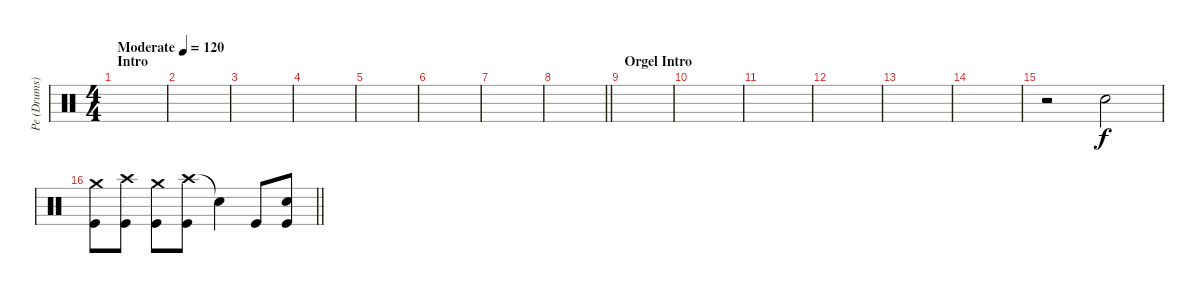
\track ("Pe (Drums)" "Pe (Drums)") {instrument percussion}
\staff {score}
\articulation defaults
\ts (4 4)
\section ("" "Intro")
\tempo (120 "Moderate")
\clef neutral
\ks c
|
|
|
|
|
|
|
\barLineRight lightlight
|
\section ("" "Orgel Intro")
|
|
|
|
|
|
r.2 "Electric Snare (hit)".2 |
\barLineRight lightlight
("Crash medium (hit)" "Kick (hit)").8{dy f} ("Crash high (hit)" "Kick (hit)").8 ("Crash medium (hit)" "Kick (hit)").8 ("Crash high (hit)" "Kick (hit)").8 "Snare (hit)"{t}.4 "Kick (hit)".8 ("Electric Snare (hit)" "Kick (hit)").8
